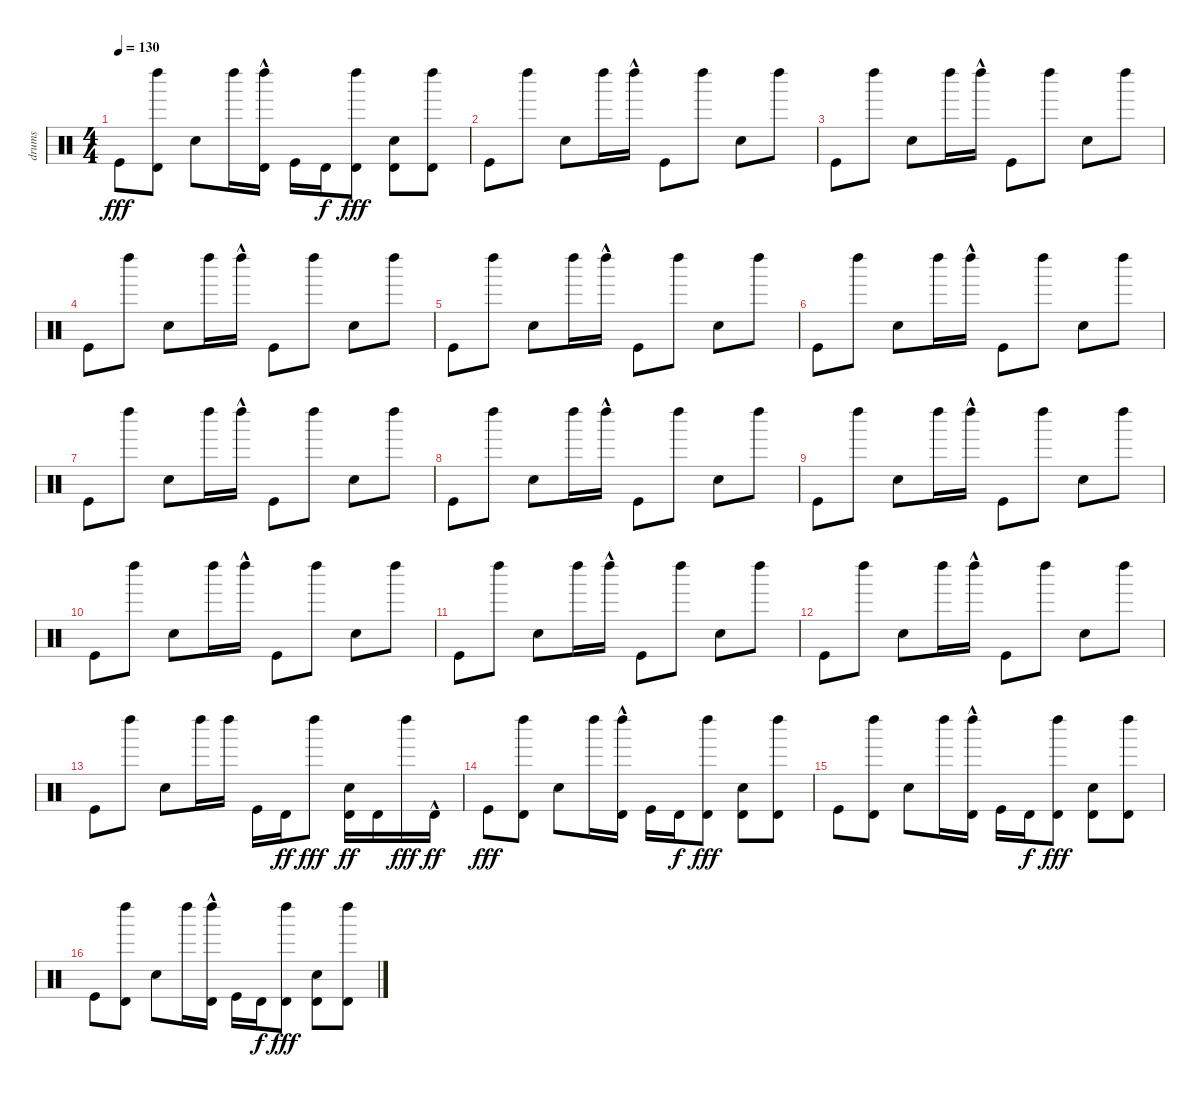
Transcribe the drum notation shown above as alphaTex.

\track ("drums" "drums") {instrument percussion}
\staff {score}
\articulation defaults
\ts (4 4)
\tempo 130
\clef neutral
\ks c "Kick (hit)".8{dy fff}
("Left Maraca (hit)" "Timbale high (hit)").8 "Snare (hit) 2".8 "Left Maraca (hit)".16 ("Left Maraca (hit)"{hac} "Timbale high (hit)").16 "Kick (hit)".16 "Timbale high (hit)".16{dy f} ("Left Maraca (hit)" "Timbale high (hit)").8{dy fff} ("Snare (hit) 2" "Timbale high (hit)").8 ("Left Maraca (hit)" "Timbale high (hit)").8 |
"Kick (hit)".8 "Left Maraca (hit)".8 "Snare (hit) 2".8 "Left Maraca (hit)".16 "Left Maraca (hit)"{hac}.16 "Kick (hit)".8 "Left Maraca (hit)".8 "Snare (hit) 2".8 "Left Maraca (hit)".8 |
"Kick (hit)".8 "Left Maraca (hit)".8 "Snare (hit) 2".8 "Left Maraca (hit)".16 "Left Maraca (hit)"{hac}.16 "Kick (hit)".8 "Left Maraca (hit)".8 "Snare (hit) 2".8 "Left Maraca (hit)".8 |
"Kick (hit)".8 "Left Maraca (hit)".8 "Snare (hit) 2".8 "Left Maraca (hit)".16 "Left Maraca (hit)"{hac}.16 "Kick (hit)".8 "Left Maraca (hit)".8 "Snare (hit) 2".8 "Left Maraca (hit)".8 |
"Kick (hit)".8 "Left Maraca (hit)".8 "Snare (hit) 2".8 "Left Maraca (hit)".16 "Left Maraca (hit)"{hac}.16 "Kick (hit)".8 "Left Maraca (hit)".8 "Snare (hit) 2".8 "Left Maraca (hit)".8 |
"Kick (hit)".8 "Left Maraca (hit)".8 "Snare (hit) 2".8 "Left Maraca (hit)".16 "Left Maraca (hit)"{hac}.16 "Kick (hit)".8 "Left Maraca (hit)".8 "Snare (hit) 2".8 "Left Maraca (hit)".8 |
"Kick (hit)".8 "Left Maraca (hit)".8 "Snare (hit) 2".8 "Left Maraca (hit)".16 "Left Maraca (hit)"{hac}.16 "Kick (hit)".8 "Left Maraca (hit)".8 "Snare (hit) 2".8 "Left Maraca (hit)".8 |
"Kick (hit)".8 "Left Maraca (hit)".8 "Snare (hit) 2".8 "Left Maraca (hit)".16 "Left Maraca (hit)"{hac}.16 "Kick (hit)".8 "Left Maraca (hit)".8 "Snare (hit) 2".8 "Left Maraca (hit)".8 |
"Kick (hit)".8 "Left Maraca (hit)".8 "Snare (hit) 2".8 "Left Maraca (hit)".16 "Left Maraca (hit)"{hac}.16 "Kick (hit)".8 "Left Maraca (hit)".8 "Snare (hit) 2".8 "Left Maraca (hit)".8 |
"Kick (hit)".8 "Left Maraca (hit)".8 "Snare (hit) 2".8 "Left Maraca (hit)".16 "Left Maraca (hit)"{hac}.16 "Kick (hit)".8 "Left Maraca (hit)".8 "Snare (hit) 2".8 "Left Maraca (hit)".8 |
"Kick (hit)".8 "Left Maraca (hit)".8 "Snare (hit) 2".8 "Left Maraca (hit)".16 "Left Maraca (hit)"{hac}.16 "Kick (hit)".8 "Left Maraca (hit)".8 "Snare (hit) 2".8 "Left Maraca (hit)".8 |
"Kick (hit)".8 "Left Maraca (hit)".8 "Snare (hit) 2".8 "Left Maraca (hit)".16 "Left Maraca (hit)"{hac}.16 "Kick (hit)".8 "Left Maraca (hit)".8 "Snare (hit) 2".8 "Left Maraca (hit)".8 |
"Kick (hit)".8 "Left Maraca (hit)".8 "Snare (hit) 2".8 "Left Maraca (hit)".16 "Left Maraca (hit)".16 "Kick (hit)".16 "Timbale high (hit)".16{dy ff} "Left Maraca (hit)".8{dy fff} ("Snare (hit) 2" "Timbale high (hit)").16{dy ff} "Timbale high (hit)".16 "Left Maraca (hit)".16{dy fff} "Timbale high (hit)"{hac}.16{dy ff} |
"Kick (hit)".8{dy fff} ("Left Maraca (hit)" "Timbale high (hit)").8 "Snare (hit) 2".8 "Left Maraca (hit)".16 ("Left Maraca (hit)"{hac} "Timbale high (hit)").16 "Kick (hit)".16 "Timbale high (hit)".16{dy f} ("Left Maraca (hit)" "Timbale high (hit)").8{dy fff} ("Snare (hit) 2" "Timbale high (hit)").8 ("Left Maraca (hit)" "Timbale high (hit)").8 |
"Kick (hit)".8 ("Left Maraca (hit)" "Timbale high (hit)").8 "Snare (hit) 2".8 "Left Maraca (hit)".16 ("Left Maraca (hit)"{hac} "Timbale high (hit)").16 "Kick (hit)".16 "Timbale high (hit)".16{dy f} ("Left Maraca (hit)" "Timbale high (hit)").8{dy fff} ("Snare (hit) 2" "Timbale high (hit)").8 ("Left Maraca (hit)" "Timbale high (hit)").8 |
"Kick (hit)".8 ("Left Maraca (hit)" "Timbale high (hit)").8 "Snare (hit) 2".8 "Left Maraca (hit)".16 ("Left Maraca (hit)"{hac} "Timbale high (hit)").16 "Kick (hit)".16 "Timbale high (hit)".16{dy f} ("Left Maraca (hit)" "Timbale high (hit)").8{dy fff} ("Snare (hit) 2" "Timbale high (hit)").8 ("Left Maraca (hit)" "Timbale high (hit)").8
